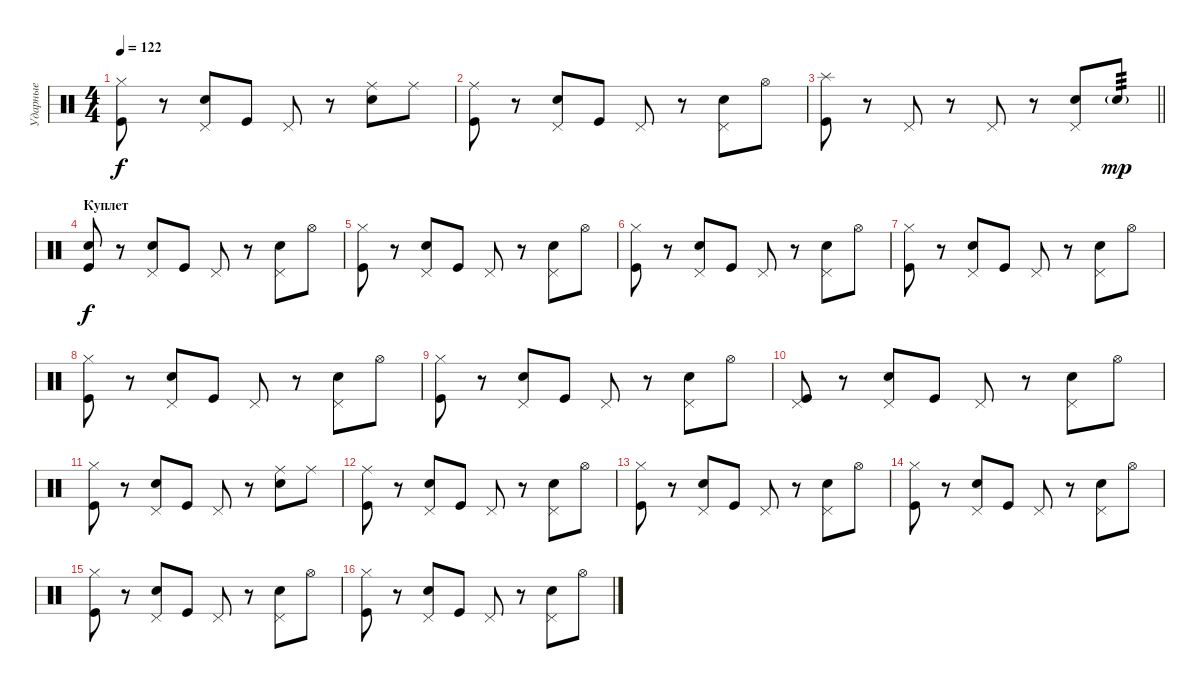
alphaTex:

\track ("Ударные" "Ударные") {instrument percussion}
\staff {score}
\articulation defaults
\ts (4 4)
\tempo 122
\clef neutral
\ks c
("Hi-Hat (closed)" "Kick (hit)").8{dy f} r.8 ("Pedal Hi-Hat (hit)" "Snare (hit) 2").8 "Kick (hit)".8 "Pedal Hi-Hat (hit)".8 r.8 ("Ride (middle)" "Snare (hit) 2").8 "Ride (middle)".8 |
("Ride (middle)" "Kick (hit)").8 r.8 ("Pedal Hi-Hat (hit)" "Snare (hit) 2").8 "Kick (hit)".8 "Pedal Hi-Hat (hit)".8 r.8 ("Pedal Hi-Hat (hit)" "Snare (hit) 2").8 "Hi-Hat (open)".8 |
\barLineRight lightlight
("Splash (hit)" "Kick (hit)").8 r.8 "Pedal Hi-Hat (hit)".8 r.8 "Pedal Hi-Hat (hit)".8 r.8 ("Pedal Hi-Hat (hit)" "Snare (hit) 2").8 "Snare (hit) 2"{g}.8{tp 3 dy mp} |
\section ("" "Куплет")
("Snare (hit) 2" "Kick (hit)").8{dy f} r.8 ("Pedal Hi-Hat (hit)" "Snare (hit) 2").8 "Kick (hit)".8 "Pedal Hi-Hat (hit)".8 r.8 ("Pedal Hi-Hat (hit)" "Snare (hit) 2").8 "Hi-Hat (open)".8 |
("Hi-Hat (closed)" "Kick (hit)").8 r.8 ("Pedal Hi-Hat (hit)" "Snare (hit) 2").8 "Kick (hit)".8 "Pedal Hi-Hat (hit)".8 r.8 ("Pedal Hi-Hat (hit)" "Snare (hit) 2").8 "Hi-Hat (open)".8 |
("Hi-Hat (closed)" "Kick (hit)").8 r.8 ("Pedal Hi-Hat (hit)" "Snare (hit) 2").8 "Kick (hit)".8 "Pedal Hi-Hat (hit)".8 r.8 ("Pedal Hi-Hat (hit)" "Snare (hit) 2").8 "Hi-Hat (open)".8 |
("Hi-Hat (closed)" "Kick (hit)").8 r.8 ("Pedal Hi-Hat (hit)" "Snare (hit) 2").8 "Kick (hit)".8 "Pedal Hi-Hat (hit)".8 r.8 ("Pedal Hi-Hat (hit)" "Snare (hit) 2").8 "Hi-Hat (open)".8 |
("Hi-Hat (closed)" "Kick (hit)").8 r.8 ("Pedal Hi-Hat (hit)" "Snare (hit) 2").8 "Kick (hit)".8 "Pedal Hi-Hat (hit)".8 r.8 ("Pedal Hi-Hat (hit)" "Snare (hit) 2").8 "Hi-Hat (open)".8 |
("Hi-Hat (closed)" "Kick (hit)").8 r.8 ("Pedal Hi-Hat (hit)" "Snare (hit) 2").8 "Kick (hit)".8 "Pedal Hi-Hat (hit)".8 r.8 ("Pedal Hi-Hat (hit)" "Snare (hit) 2").8 "Hi-Hat (open)".8 |
("Pedal Hi-Hat (hit)" "Kick (hit)").8 r.8 ("Pedal Hi-Hat (hit)" "Snare (hit) 2").8 "Kick (hit)".8 "Pedal Hi-Hat (hit)".8 r.8 ("Pedal Hi-Hat (hit)" "Snare (hit) 2").8 "Hi-Hat (open)".8 |
("Hi-Hat (closed)" "Kick (hit)").8 r.8 ("Pedal Hi-Hat (hit)" "Snare (hit) 2").8 "Kick (hit)".8 "Pedal Hi-Hat (hit)".8 r.8 ("Ride (middle)" "Snare (hit) 2").8 "Ride (middle)".8 |
("Ride (middle)" "Kick (hit)").8 r.8 ("Pedal Hi-Hat (hit)" "Snare (hit) 2").8 "Kick (hit)".8 "Pedal Hi-Hat (hit)".8 r.8 ("Pedal Hi-Hat (hit)" "Snare (hit) 2").8 "Hi-Hat (open)".8 |
("Hi-Hat (closed)" "Kick (hit)").8 r.8 ("Pedal Hi-Hat (hit)" "Snare (hit) 2").8 "Kick (hit)".8 "Pedal Hi-Hat (hit)".8 r.8 ("Pedal Hi-Hat (hit)" "Snare (hit) 2").8 "Hi-Hat (open)".8 |
("Hi-Hat (closed)" "Kick (hit)").8 r.8 ("Pedal Hi-Hat (hit)" "Snare (hit) 2").8 "Kick (hit)".8 "Pedal Hi-Hat (hit)".8 r.8 ("Pedal Hi-Hat (hit)" "Snare (hit) 2").8 "Hi-Hat (open)".8 |
("Hi-Hat (closed)" "Kick (hit)").8 r.8 ("Pedal Hi-Hat (hit)" "Snare (hit) 2").8 "Kick (hit)".8 "Pedal Hi-Hat (hit)".8 r.8 ("Pedal Hi-Hat (hit)" "Snare (hit) 2").8 "Hi-Hat (open)".8 |
("Hi-Hat (closed)" "Kick (hit)").8 r.8 ("Pedal Hi-Hat (hit)" "Snare (hit) 2").8 "Kick (hit)".8 "Pedal Hi-Hat (hit)".8 r.8 ("Pedal Hi-Hat (hit)" "Snare (hit) 2").8 "Hi-Hat (open)".8
